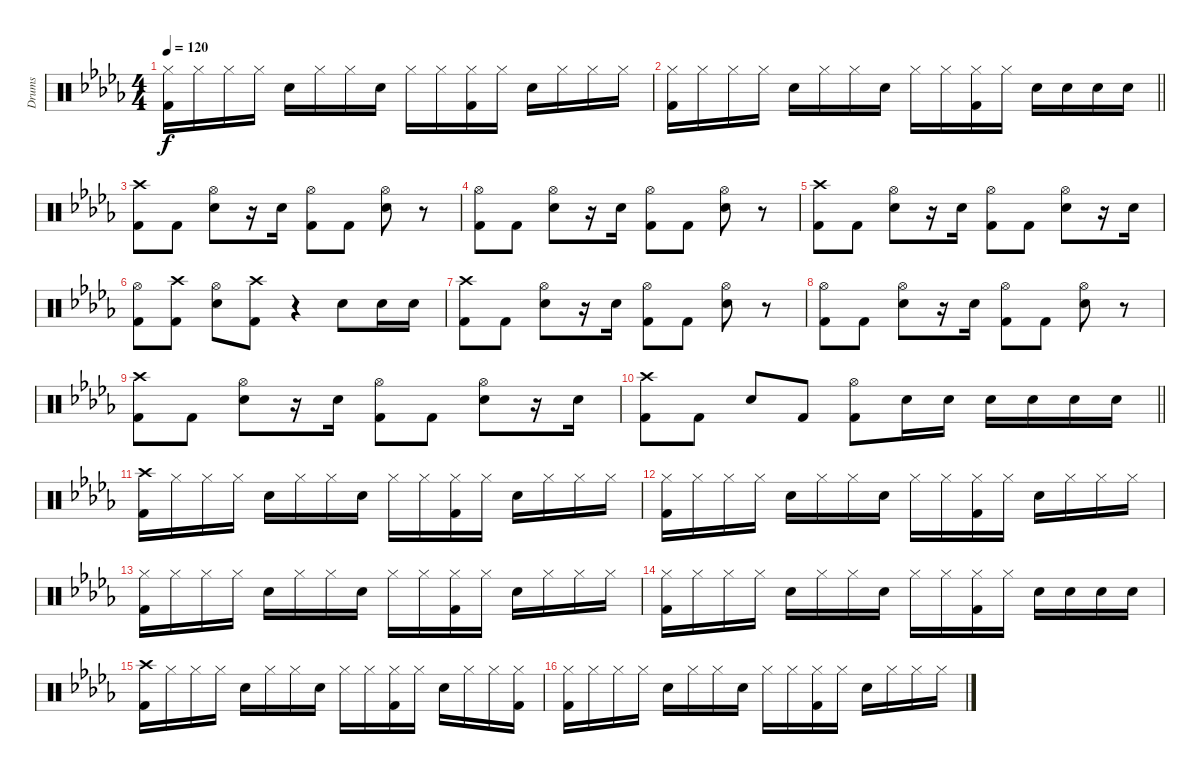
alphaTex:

\track ("Drums" "Drums") {instrument percussion}
\staff {score}
\articulation defaults
\ts (4 4)
\tempo 120
\clef neutral
\ks db
("Hi-Hat (closed)" "Kick (hit) 2").16{dy f} "Hi-Hat (closed)".16 "Hi-Hat (closed)".16 "Hi-Hat (closed)".16 "Snare (hit) 2".16 "Hi-Hat (closed)".16 "Hi-Hat (closed)".16 "Snare (hit) 2".16 "Hi-Hat (closed)".16 "Hi-Hat (closed)".16 ("Hi-Hat (closed)" "Kick (hit) 2").16 "Hi-Hat (closed)".16 "Snare (hit) 2".16 "Hi-Hat (closed)".16 "Hi-Hat (closed)".16 "Hi-Hat (closed)".16 |
\barLineRight lightlight
("Hi-Hat (closed)" "Kick (hit) 2").16 "Hi-Hat (closed)".16 "Hi-Hat (closed)".16 "Hi-Hat (closed)".16 "Snare (hit) 2".16 "Hi-Hat (closed)".16 "Hi-Hat (closed)".16 "Snare (hit) 2".16 "Hi-Hat (closed)".16 "Hi-Hat (closed)".16 ("Hi-Hat (closed)" "Kick (hit) 2").16 "Hi-Hat (closed)".16 "Snare (hit) 2".16 "Snare (hit) 2".16 "Snare (hit) 2".16 "Snare (hit) 2".16 |
("Crash high (hit)" "Kick (hit) 2").8 "Kick (hit) 2".8 ("Hi-Hat (open)" "Snare (hit) 2").8 r.16 "Snare (hit) 2".16 ("Hi-Hat (open)" "Kick (hit) 2").8 "Kick (hit) 2".8 ("Hi-Hat (open)" "Snare (hit) 2").8 r.8 |
("Hi-Hat (open)" "Kick (hit) 2").8 "Kick (hit) 2".8 ("Hi-Hat (open)" "Snare (hit) 2").8 r.16 "Snare (hit) 2".16 ("Hi-Hat (open)" "Kick (hit) 2").8 "Kick (hit) 2".8 ("Hi-Hat (open)" "Snare (hit) 2").8 r.8 |
("Crash high (hit)" "Kick (hit) 2").8 "Kick (hit) 2".8 ("Hi-Hat (open)" "Snare (hit) 2").8 r.16 "Snare (hit) 2".16 ("Hi-Hat (open)" "Kick (hit) 2").8 "Kick (hit) 2".8 ("Hi-Hat (open)" "Snare (hit) 2").8 r.16 "Snare (hit) 2".16 |
("Hi-Hat (open)" "Kick (hit) 2").8 ("Crash high (hit)" "Kick (hit) 2").8 ("Hi-Hat (open)" "Snare (hit) 2").8 ("Crash high (hit)" "Kick (hit) 2").8 r.4 "Snare (hit) 2".8 "Snare (hit) 2".16 "Snare (hit) 2".16 |
("Crash high (hit)" "Kick (hit) 2").8 "Kick (hit) 2".8 ("Hi-Hat (open)" "Snare (hit) 2").8 r.16 "Snare (hit) 2".16 ("Hi-Hat (open)" "Kick (hit) 2").8 "Kick (hit) 2".8 ("Hi-Hat (open)" "Snare (hit) 2").8 r.8 |
("Hi-Hat (open)" "Kick (hit) 2").8 "Kick (hit) 2".8 ("Hi-Hat (open)" "Snare (hit) 2").8 r.16 "Snare (hit) 2".16 ("Hi-Hat (open)" "Kick (hit) 2").8 "Kick (hit) 2".8 ("Hi-Hat (open)" "Snare (hit) 2").8 r.8 |
("Crash high (hit)" "Kick (hit) 2").8 "Kick (hit) 2".8 ("Hi-Hat (open)" "Snare (hit) 2").8 r.16 "Snare (hit) 2".16 ("Hi-Hat (open)" "Kick (hit) 2").8 "Kick (hit) 2".8 ("Hi-Hat (open)" "Snare (hit) 2").8 r.16 "Snare (hit) 2".16 |
\barLineRight lightlight
("Crash high (hit)" "Kick (hit) 2").8 "Kick (hit) 2".8 "Snare (hit) 2".8 "Kick (hit) 2".8 ("Hi-Hat (open)" "Kick (hit) 2").8 "Snare (hit) 2".16 "Snare (hit) 2".16 "Snare (hit) 2".16 "Snare (hit) 2".16 "Snare (hit) 2".16 "Snare (hit) 2".16 |
("Crash high (hit)" "Kick (hit) 2").16 "Hi-Hat (closed)".16 "Hi-Hat (closed)".16 "Hi-Hat (closed)".16 "Snare (hit) 2".16 "Hi-Hat (closed)".16 "Hi-Hat (closed)".16 "Snare (hit) 2".16 "Hi-Hat (closed)".16 "Hi-Hat (closed)".16 ("Hi-Hat (closed)" "Kick (hit) 2").16 "Hi-Hat (closed)".16 "Snare (hit) 2".16 "Hi-Hat (closed)".16 "Hi-Hat (closed)".16 "Hi-Hat (closed)".16 |
("Hi-Hat (closed)" "Kick (hit) 2").16 "Hi-Hat (closed)".16 "Hi-Hat (closed)".16 "Hi-Hat (closed)".16 "Snare (hit) 2".16 "Hi-Hat (closed)".16 "Hi-Hat (closed)".16 "Snare (hit) 2".16 "Hi-Hat (closed)".16 "Hi-Hat (closed)".16 ("Hi-Hat (closed)" "Kick (hit) 2").16 "Hi-Hat (closed)".16 "Snare (hit) 2".16 "Hi-Hat (closed)".16 "Hi-Hat (closed)".16 "Hi-Hat (closed)".16 |
("Hi-Hat (closed)" "Kick (hit) 2").16 "Hi-Hat (closed)".16 "Hi-Hat (closed)".16 "Hi-Hat (closed)".16 "Snare (hit) 2".16 "Hi-Hat (closed)".16 "Hi-Hat (closed)".16 "Snare (hit) 2".16 "Hi-Hat (closed)".16 "Hi-Hat (closed)".16 ("Hi-Hat (closed)" "Kick (hit) 2").16 "Hi-Hat (closed)".16 "Snare (hit) 2".16 "Hi-Hat (closed)".16 "Hi-Hat (closed)".16 "Hi-Hat (closed)".16 |
("Hi-Hat (closed)" "Kick (hit) 2").16 "Hi-Hat (closed)".16 "Hi-Hat (closed)".16 "Hi-Hat (closed)".16 "Snare (hit) 2".16 "Hi-Hat (closed)".16 "Hi-Hat (closed)".16 "Snare (hit) 2".16 "Hi-Hat (closed)".16 "Hi-Hat (closed)".16 ("Hi-Hat (closed)" "Kick (hit) 2").16 "Hi-Hat (closed)".16 "Snare (hit) 2".16 "Snare (hit) 2".16 "Snare (hit) 2".16 "Snare (hit) 2".16 |
("Crash high (hit)" "Kick (hit) 2").16 "Hi-Hat (closed)".16 "Hi-Hat (closed)".16 "Hi-Hat (closed)".16 "Snare (hit) 2".16 "Hi-Hat (closed)".16 "Hi-Hat (closed)".16 "Snare (hit) 2".16 "Hi-Hat (closed)".16 "Hi-Hat (closed)".16 ("Hi-Hat (closed)" "Kick (hit) 2").16 "Hi-Hat (closed)".16 "Snare (hit) 2".16 "Hi-Hat (closed)".16 "Hi-Hat (closed)".16 ("Hi-Hat (closed)" "Kick (hit) 2").16 |
("Hi-Hat (closed)" "Kick (hit) 2").16 "Hi-Hat (closed)".16 "Hi-Hat (closed)".16 "Hi-Hat (closed)".16 "Snare (hit) 2".16 "Hi-Hat (closed)".16 "Hi-Hat (closed)".16 "Snare (hit) 2".16 "Hi-Hat (closed)".16 "Hi-Hat (closed)".16 ("Hi-Hat (closed)" "Kick (hit) 2").16 "Hi-Hat (closed)".16 "Snare (hit) 2".16 "Hi-Hat (closed)".16 "Hi-Hat (closed)".16 "Hi-Hat (closed)".16
